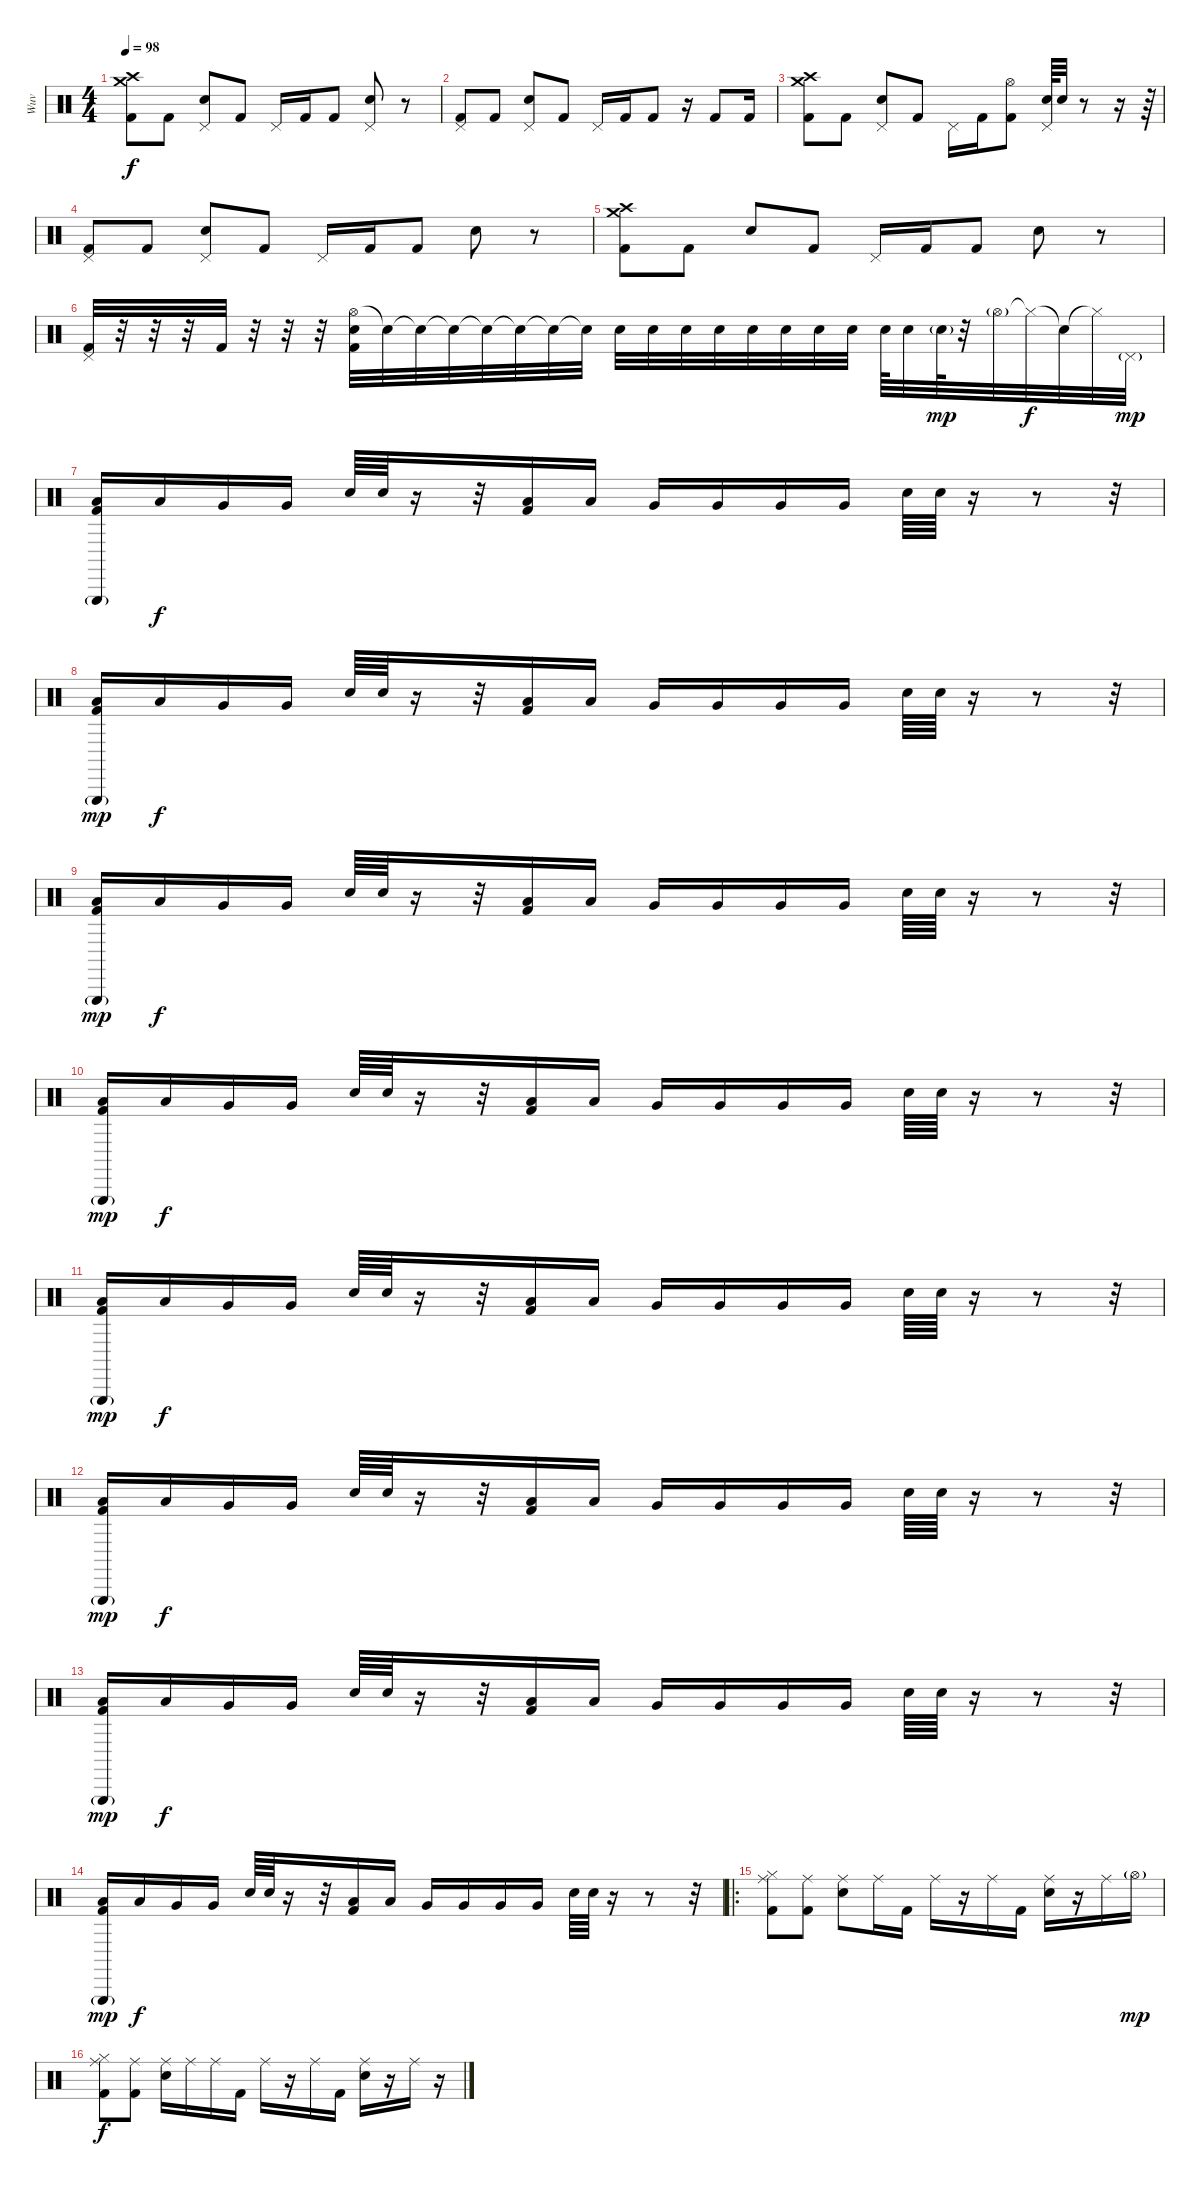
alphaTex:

\track ("Wuv" "Wuv") {instrument percussion}
\staff {score}
\articulation defaults
\ts (4 4)
\tempo 98
\clef neutral
\ks c
("Crash high (hit)" "Crash medium (hit)" "Kick (hit) 2").8{dy f} "Kick (hit) 2".8 ("Pedal Hi-Hat (hit)" "Electric Snare (hit)").8 "Kick (hit) 2".8 "Pedal Hi-Hat (hit)".16 "Kick (hit) 2".16 "Kick (hit) 2".8 ("Pedal Hi-Hat (hit)" "Electric Snare (hit)").8 r.8 |
("Pedal Hi-Hat (hit)" "Kick (hit) 2").8 "Kick (hit) 2".8 ("Pedal Hi-Hat (hit)" "Electric Snare (hit)").8 "Kick (hit) 2".8 "Pedal Hi-Hat (hit)".16 "Kick (hit) 2".16 "Kick (hit) 2".8 r.16 "Kick (hit) 2".8 "Kick (hit) 2".16 |
("Crash high (hit)" "Crash medium (hit)" "Kick (hit) 2").8 "Kick (hit) 2".8 ("Pedal Hi-Hat (hit)" "Electric Snare (hit)").8 "Kick (hit) 2".8 "Pedal Hi-Hat (hit)".16 "Kick (hit) 2".16 ("Hi-Hat (open)" "Kick (hit) 2").8 ("Pedal Hi-Hat (hit)" "Electric Snare (hit)").64 "Electric Snare (hit)".32 r.8 r.16 r.64 |
("Pedal Hi-Hat (hit)" "Kick (hit) 2").8 "Kick (hit) 2".8 ("Pedal Hi-Hat (hit)" "Electric Snare (hit)").8 "Kick (hit) 2".8 "Pedal Hi-Hat (hit)".16 "Kick (hit) 2".16 "Kick (hit) 2".8 "Electric Snare (hit)".8 r.8 |
("Crash high (hit)" "Crash medium (hit)" "Kick (hit) 2").8 "Kick (hit) 2".8 "Electric Snare (hit)".8 "Kick (hit) 2".8 "Pedal Hi-Hat (hit)".16 "Kick (hit) 2".16 "Kick (hit) 2".8 "Electric Snare (hit)".8 r.8 |
("Pedal Hi-Hat (hit)" "Kick (hit) 2").32 r.32 r.32 r.32 "Kick (hit) 2".32 r.32 r.32 r.32 ("Hi-Hat (open)" "Electric Snare (hit)" "Kick (hit) 2").32 "Snare (hit)"{t}.32 "Snare (hit)"{t}.32 "Snare (hit)"{t}.32 "Snare (hit)"{t}.32 "Snare (hit)"{t}.32 "Snare (hit)"{t}.32 "Snare (hit)"{t}.32 "Snare (hit) 2".32{volume 4} "Snare (hit) 2".32{volume 8} "Snare (hit) 2".32 "Snare (hit) 2".32 "Snare (hit) 2".32 "Snare (hit) 2".32 "Snare (hit) 2".32 "Snare (hit) 2".32 "Electric Snare (hit)".64{volume 10} "Electric Snare (hit)".32 "Electric Snare (hit)"{g}.64{dy mp} r.32 "Hi-Hat (open)"{g}.32 "Hi-Hat (closed)"{t}.32{dy f} "Snare (hit)"{t}.32 "Hi-Hat (closed)"{t}.32 "Pedal Hi-Hat (hit)"{g}.32{dy mp} |
("Low Tom (hit)" "Triangle (hit)"{g} "Kick (hit) 2").16 "Low Tom (hit)".16{dy f} "Very Low Tom (hit)".16 "Very Low Tom (hit)".16 "Electric Snare (hit)".64 "Electric Snare (hit)".64 r.16 r.32 ("Low Tom (hit)" "Kick (hit) 2").16 "Low Tom (hit)".16 "Very Low Tom (hit)".16 "Very Low Tom (hit)".16 "Very Low Tom (hit)".16 "Very Low Tom (hit)".16 "Electric Snare (hit)".64 "Electric Snare (hit)".64 r.16 r.8 r.32 |
("Low Tom (hit)" "Triangle (hit)"{g} "Kick (hit) 2").16{dy mp} "Low Tom (hit)".16{dy f} "Very Low Tom (hit)".16 "Very Low Tom (hit)".16 "Electric Snare (hit)".64 "Electric Snare (hit)".64 r.16 r.32 ("Low Tom (hit)" "Kick (hit) 2").16 "Low Tom (hit)".16 "Very Low Tom (hit)".16 "Very Low Tom (hit)".16 "Very Low Tom (hit)".16 "Very Low Tom (hit)".16 "Electric Snare (hit)".64 "Electric Snare (hit)".64 r.16 r.8 r.32 |
("Low Tom (hit)" "Triangle (hit)"{g} "Kick (hit) 2").16{dy mp} "Low Tom (hit)".16{dy f} "Very Low Tom (hit)".16 "Very Low Tom (hit)".16 "Electric Snare (hit)".64 "Electric Snare (hit)".64 r.16 r.32 ("Low Tom (hit)" "Kick (hit) 2").16 "Low Tom (hit)".16 "Very Low Tom (hit)".16 "Very Low Tom (hit)".16 "Very Low Tom (hit)".16 "Very Low Tom (hit)".16 "Electric Snare (hit)".64 "Electric Snare (hit)".64 r.16 r.8 r.32 |
("Low Tom (hit)" "Triangle (hit)"{g} "Kick (hit) 2").16{dy mp} "Low Tom (hit)".16{dy f} "Very Low Tom (hit)".16 "Very Low Tom (hit)".16 "Electric Snare (hit)".64 "Electric Snare (hit)".64 r.16 r.32 ("Low Tom (hit)" "Kick (hit) 2").16 "Low Tom (hit)".16 "Very Low Tom (hit)".16 "Very Low Tom (hit)".16 "Very Low Tom (hit)".16 "Very Low Tom (hit)".16 "Electric Snare (hit)".64 "Electric Snare (hit)".64 r.16 r.8 r.32 |
("Low Tom (hit)" "Triangle (hit)"{g} "Kick (hit) 2").16{dy mp} "Low Tom (hit)".16{dy f} "Very Low Tom (hit)".16 "Very Low Tom (hit)".16 "Electric Snare (hit)".64 "Electric Snare (hit)".64 r.16 r.32 ("Low Tom (hit)" "Kick (hit) 2").16 "Low Tom (hit)".16 "Very Low Tom (hit)".16 "Very Low Tom (hit)".16 "Very Low Tom (hit)".16 "Very Low Tom (hit)".16 "Electric Snare (hit)".64 "Electric Snare (hit)".64 r.16 r.8 r.32 |
("Low Tom (hit)" "Triangle (hit)"{g} "Kick (hit) 2").16{dy mp} "Low Tom (hit)".16{dy f} "Very Low Tom (hit)".16 "Very Low Tom (hit)".16 "Electric Snare (hit)".64 "Electric Snare (hit)".64 r.16 r.32 ("Low Tom (hit)" "Kick (hit) 2").16 "Low Tom (hit)".16 "Very Low Tom (hit)".16 "Very Low Tom (hit)".16 "Very Low Tom (hit)".16 "Very Low Tom (hit)".16 "Electric Snare (hit)".64 "Electric Snare (hit)".64 r.16 r.8 r.32 |
("Low Tom (hit)" "Triangle (hit)"{g} "Kick (hit) 2").16{dy mp} "Low Tom (hit)".16{dy f} "Very Low Tom (hit)".16 "Very Low Tom (hit)".16 "Electric Snare (hit)".64 "Electric Snare (hit)".64 r.16 r.32 ("Low Tom (hit)" "Kick (hit) 2").16 "Low Tom (hit)".16 "Very Low Tom (hit)".16 "Very Low Tom (hit)".16 "Very Low Tom (hit)".16 "Very Low Tom (hit)".16 "Electric Snare (hit)".64 "Electric Snare (hit)".64 r.16 r.8 r.32 |
("Low Tom (hit)" "Triangle (hit)"{g} "Kick (hit) 2").16{dy mp} "Low Tom (hit)".16{dy f} "Very Low Tom (hit)".16 "Very Low Tom (hit)".16 "Electric Snare (hit)".64 "Electric Snare (hit)".64 r.16 r.32 ("Low Tom (hit)" "Kick (hit) 2").16 "Low Tom (hit)".16 "Very Low Tom (hit)".16 "Very Low Tom (hit)".16 "Very Low Tom (hit)".16 "Very Low Tom (hit)".16 "Electric Snare (hit)".64 "Electric Snare (hit)".64 r.16 r.8 r.32 |
\ro
("Ride (middle)" "Hi-Hat (closed)" "Kick (hit) 2").8 ("Ride (middle)" "Kick (hit) 2").8 ("Ride (middle)" "Electric Snare (hit)").8 "Ride (middle)".16 "Kick (hit) 2".16 "Ride (middle)".16 r.16 "Ride (middle)".16 "Kick (hit) 2".16 ("Ride (middle)" "Electric Snare (hit)").16 r.16 "Ride (middle)".16 "Hi-Hat (open)"{g}.16{dy mp} |
("Ride (middle)" "Hi-Hat (closed)" "Kick (hit) 2").8{dy f} ("Ride (middle)" "Kick (hit) 2").8 ("Ride (middle)" "Electric Snare (hit)").16 "Ride (middle)".16 "Ride (middle)".16 "Kick (hit) 2".16 "Ride (middle)".16 r.16 "Ride (middle)".16 "Kick (hit) 2".16 ("Ride (middle)" "Electric Snare (hit)").16 r.16 "Ride (middle)".16 r.16
